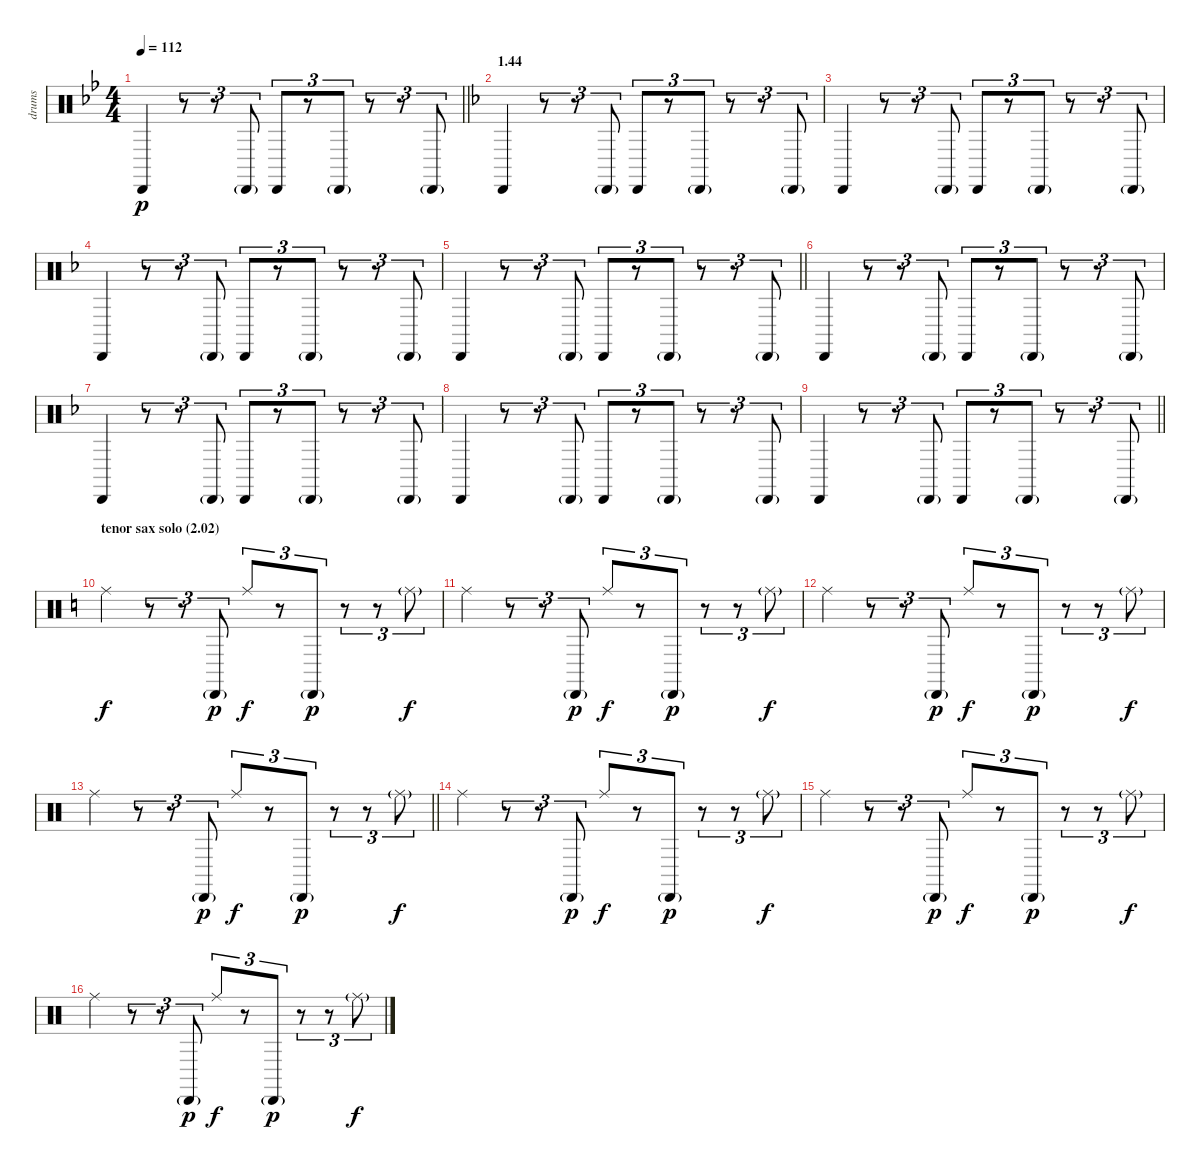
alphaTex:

\track ("drums" "drums") {instrument percussion}
\staff {score}
\articulation defaults
\ts (4 4)
\tempo 112
\clef neutral
\barLineRight lightlight
\ks bb "Cabasa (hit)".4{dy p}
r.8{tu (3 2)} r.8{tu (3 2)} "Cabasa (hit)"{g}.8{tu (3 2)} "Cabasa (hit)".8{tu (3 2)} r.8{tu (3 2)} "Cabasa (hit)"{g}.8{tu (3 2)} r.8{tu (3 2)} r.8{tu (3 2)} "Cabasa (hit)"{g}.8{tu (3 2)} |
\section ("" "1.44")
\ks f "Cabasa (hit)".4
r.8{tu (3 2)} r.8{tu (3 2)} "Cabasa (hit)"{g}.8{tu (3 2)} "Cabasa (hit)".8{tu (3 2)} r.8{tu (3 2)} "Cabasa (hit)"{g}.8{tu (3 2)} r.8{tu (3 2)} r.8{tu (3 2)} "Cabasa (hit)"{g}.8{tu (3 2)} |
"Cabasa (hit)".4 r.8{tu (3 2)} r.8{tu (3 2)} "Cabasa (hit)"{g}.8{tu (3 2)} "Cabasa (hit)".8{tu (3 2)} r.8{tu (3 2)} "Cabasa (hit)"{g}.8{tu (3 2)} r.8{tu (3 2)} r.8{tu (3 2)} "Cabasa (hit)"{g}.8{tu (3 2)} |
"Cabasa (hit)".4 r.8{tu (3 2)} r.8{tu (3 2)} "Cabasa (hit)"{g}.8{tu (3 2)} "Cabasa (hit)".8{tu (3 2)} r.8{tu (3 2)} "Cabasa (hit)"{g}.8{tu (3 2)} r.8{tu (3 2)} r.8{tu (3 2)} "Cabasa (hit)"{g}.8{tu (3 2)} |
\barLineRight lightlight "Cabasa (hit)".4
r.8{tu (3 2)} r.8{tu (3 2)} "Cabasa (hit)"{g}.8{tu (3 2)} "Cabasa (hit)".8{tu (3 2)} r.8{tu (3 2)} "Cabasa (hit)"{g}.8{tu (3 2)} r.8{tu (3 2)} r.8{tu (3 2)} "Cabasa (hit)"{g}.8{tu (3 2)} |
"Cabasa (hit)".4 r.8{tu (3 2)} r.8{tu (3 2)} "Cabasa (hit)"{g}.8{tu (3 2)} "Cabasa (hit)".8{tu (3 2)} r.8{tu (3 2)} "Cabasa (hit)"{g}.8{tu (3 2)} r.8{tu (3 2)} r.8{tu (3 2)} "Cabasa (hit)"{g}.8{tu (3 2)} |
"Cabasa (hit)".4 r.8{tu (3 2)} r.8{tu (3 2)} "Cabasa (hit)"{g}.8{tu (3 2)} "Cabasa (hit)".8{tu (3 2)} r.8{tu (3 2)} "Cabasa (hit)"{g}.8{tu (3 2)} r.8{tu (3 2)} r.8{tu (3 2)} "Cabasa (hit)"{g}.8{tu (3 2)} |
"Cabasa (hit)".4 r.8{tu (3 2)} r.8{tu (3 2)} "Cabasa (hit)"{g}.8{tu (3 2)} "Cabasa (hit)".8{tu (3 2)} r.8{tu (3 2)} "Cabasa (hit)"{g}.8{tu (3 2)} r.8{tu (3 2)} r.8{tu (3 2)} "Cabasa (hit)"{g}.8{tu (3 2)} |
\barLineRight lightlight "Cabasa (hit)".4
r.8{tu (3 2)} r.8{tu (3 2)} "Cabasa (hit)"{g}.8{tu (3 2)} "Cabasa (hit)".8{tu (3 2)} r.8{tu (3 2)} "Cabasa (hit)"{g}.8{tu (3 2)} r.8{tu (3 2)} r.8{tu (3 2)} "Cabasa (hit)"{g}.8{tu (3 2)} |
\section ("" "tenor sax solo (2.02)")
\ks c "Ride (middle)".4{dy f}
r.8{tu (3 2)} r.8{tu (3 2)} "Cabasa (hit)"{g}.8{tu (3 2) dy p} "Ride (middle)".8{tu (3 2) dy f} r.8{tu (3 2)} "Cabasa (hit)"{g}.8{tu (3 2) dy p} r.8{tu (3 2)} r.8{tu (3 2)} "Ride (middle)"{g}.8{tu (3 2) dy f} |
"Ride (middle)".4 r.8{tu (3 2)} r.8{tu (3 2)} "Cabasa (hit)"{g}.8{tu (3 2) dy p} "Ride (middle)".8{tu (3 2) dy f} r.8{tu (3 2)} "Cabasa (hit)"{g}.8{tu (3 2) dy p} r.8{tu (3 2)} r.8{tu (3 2)} "Ride (middle)"{g}.8{tu (3 2) dy f} |
"Ride (middle)".4 r.8{tu (3 2)} r.8{tu (3 2)} "Cabasa (hit)"{g}.8{tu (3 2) dy p} "Ride (middle)".8{tu (3 2) dy f} r.8{tu (3 2)} "Cabasa (hit)"{g}.8{tu (3 2) dy p} r.8{tu (3 2)} r.8{tu (3 2)} "Ride (middle)"{g}.8{tu (3 2) dy f} |
\barLineRight lightlight "Ride (middle)".4
r.8{tu (3 2)} r.8{tu (3 2)} "Cabasa (hit)"{g}.8{tu (3 2) dy p} "Ride (middle)".8{tu (3 2) dy f} r.8{tu (3 2)} "Cabasa (hit)"{g}.8{tu (3 2) dy p} r.8{tu (3 2)} r.8{tu (3 2)} "Ride (middle)"{g}.8{tu (3 2) dy f} |
"Ride (middle)".4 r.8{tu (3 2)} r.8{tu (3 2)} "Cabasa (hit)"{g}.8{tu (3 2) dy p} "Ride (middle)".8{tu (3 2) dy f} r.8{tu (3 2)} "Cabasa (hit)"{g}.8{tu (3 2) dy p} r.8{tu (3 2)} r.8{tu (3 2)} "Ride (middle)"{g}.8{tu (3 2) dy f} |
"Ride (middle)".4 r.8{tu (3 2)} r.8{tu (3 2)} "Cabasa (hit)"{g}.8{tu (3 2) dy p} "Ride (middle)".8{tu (3 2) dy f} r.8{tu (3 2)} "Cabasa (hit)"{g}.8{tu (3 2) dy p} r.8{tu (3 2)} r.8{tu (3 2)} "Ride (middle)"{g}.8{tu (3 2) dy f} |
"Ride (middle)".4 r.8{tu (3 2)} r.8{tu (3 2)} "Cabasa (hit)"{g}.8{tu (3 2) dy p} "Ride (middle)".8{tu (3 2) dy f} r.8{tu (3 2)} "Cabasa (hit)"{g}.8{tu (3 2) dy p} r.8{tu (3 2)} r.8{tu (3 2)} "Ride (middle)"{g}.8{tu (3 2) dy f}
